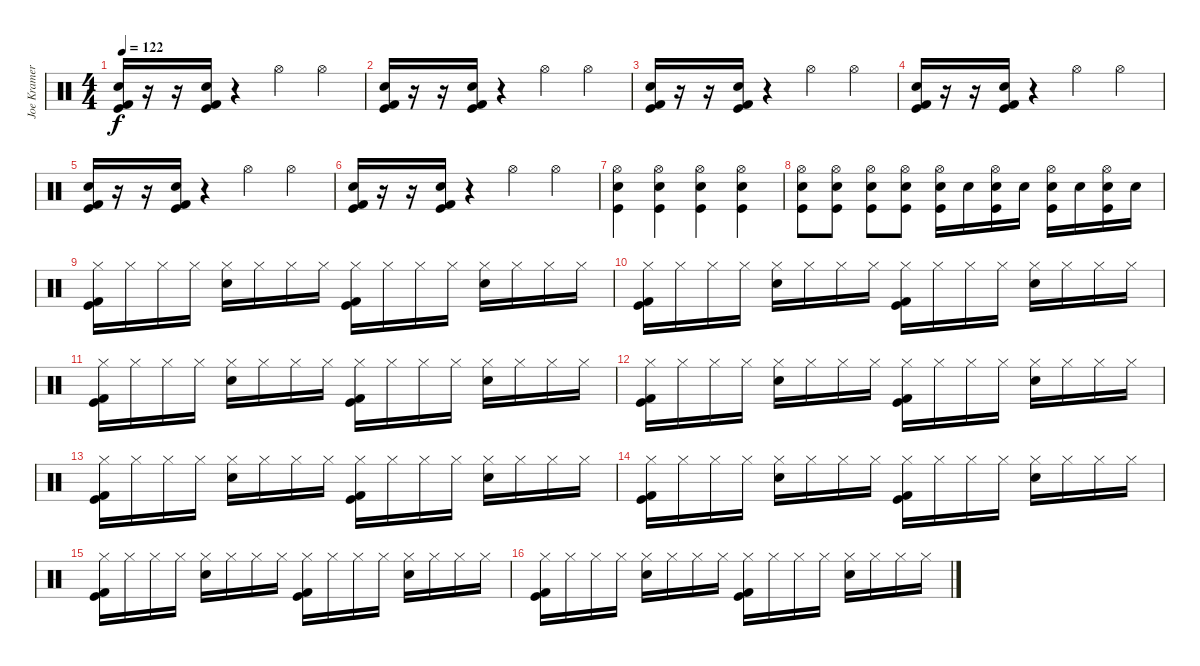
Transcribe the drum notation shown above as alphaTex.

\track ("Joe Kramer" "Joe Kramer") {instrument percussion}
\staff {score}
\articulation defaults
\ts (4 4)
\tempo 122
\clef neutral
\ks c
("Kick (hit)" "Snare (hit) 2" "Kick (hit) 2").16{dy f} r.16 r.16 ("Kick (hit)" "Snare (hit) 2" "Kick (hit) 2").16 r.4 "Hi-Hat (open)".4 "Hi-Hat (open)".4 |
("Kick (hit)" "Snare (hit) 2" "Kick (hit) 2").16 r.16 r.16 ("Kick (hit)" "Snare (hit) 2" "Kick (hit) 2").16 r.4 "Hi-Hat (open)".4 "Hi-Hat (open)".4 |
("Kick (hit)" "Snare (hit) 2" "Kick (hit) 2").16 r.16 r.16 ("Kick (hit)" "Snare (hit) 2" "Kick (hit) 2").16 r.4 "Hi-Hat (open)".4 "Hi-Hat (open)".4 |
("Kick (hit)" "Snare (hit) 2" "Kick (hit) 2").16 r.16 r.16 ("Kick (hit)" "Snare (hit) 2" "Kick (hit) 2").16 r.4 "Hi-Hat (open)".4 "Hi-Hat (open)".4 |
("Kick (hit)" "Snare (hit) 2" "Kick (hit) 2").16 r.16 r.16 ("Kick (hit)" "Snare (hit) 2" "Kick (hit) 2").16 r.4 "Hi-Hat (open)".4 "Hi-Hat (open)".4 |
("Kick (hit)" "Snare (hit) 2" "Kick (hit) 2").16 r.16 r.16 ("Kick (hit)" "Snare (hit) 2" "Kick (hit) 2").16 r.4 "Hi-Hat (open)".4 "Hi-Hat (open)".4 |
("Kick (hit)" "Snare (hit) 2" "Hi-Hat (open)").4 ("Kick (hit)" "Snare (hit) 2" "Hi-Hat (open)").4 ("Kick (hit)" "Snare (hit) 2" "Hi-Hat (open)").4 ("Kick (hit)" "Snare (hit) 2" "Hi-Hat (open)").4 |
("Kick (hit)" "Snare (hit) 2" "Hi-Hat (open)").8 ("Kick (hit)" "Snare (hit) 2" "Hi-Hat (open)").8 ("Kick (hit)" "Snare (hit) 2" "Hi-Hat (open)").8 ("Kick (hit)" "Snare (hit) 2" "Hi-Hat (open)").8 ("Kick (hit)" "Snare (hit) 2" "Hi-Hat (open)").16 "Snare (hit) 2".16 ("Kick (hit)" "Snare (hit) 2" "Hi-Hat (open)").16 "Snare (hit) 2".16 ("Kick (hit)" "Snare (hit) 2" "Hi-Hat (open)").16 "Snare (hit) 2".16 ("Kick (hit)" "Snare (hit) 2" "Hi-Hat (open)").16 "Snare (hit) 2".16 |
("Hi-Hat (closed)" "Kick (hit)" "Kick (hit) 2").16 "Hi-Hat (closed)".16 "Hi-Hat (closed)".16 "Hi-Hat (closed)".16 ("Hi-Hat (closed)" "Snare (hit) 2").16 "Hi-Hat (closed)".16 "Hi-Hat (closed)".16 "Hi-Hat (closed)".16 ("Hi-Hat (closed)" "Kick (hit)" "Kick (hit) 2").16 "Hi-Hat (closed)".16 "Hi-Hat (closed)".16 "Hi-Hat (closed)".16 ("Hi-Hat (closed)" "Snare (hit) 2").16 "Hi-Hat (closed)".16 "Hi-Hat (closed)".16 "Hi-Hat (closed)".16 |
("Hi-Hat (closed)" "Kick (hit)" "Kick (hit) 2").16 "Hi-Hat (closed)".16 "Hi-Hat (closed)".16 "Hi-Hat (closed)".16 ("Hi-Hat (closed)" "Snare (hit) 2").16 "Hi-Hat (closed)".16 "Hi-Hat (closed)".16 "Hi-Hat (closed)".16 ("Hi-Hat (closed)" "Kick (hit)" "Kick (hit) 2").16 "Hi-Hat (closed)".16 "Hi-Hat (closed)".16 "Hi-Hat (closed)".16 ("Hi-Hat (closed)" "Snare (hit) 2").16 "Hi-Hat (closed)".16 "Hi-Hat (closed)".16 "Hi-Hat (closed)".16 |
("Hi-Hat (closed)" "Kick (hit)" "Kick (hit) 2").16 "Hi-Hat (closed)".16 "Hi-Hat (closed)".16 "Hi-Hat (closed)".16 ("Hi-Hat (closed)" "Snare (hit) 2").16 "Hi-Hat (closed)".16 "Hi-Hat (closed)".16 "Hi-Hat (closed)".16 ("Hi-Hat (closed)" "Kick (hit)" "Kick (hit) 2").16 "Hi-Hat (closed)".16 "Hi-Hat (closed)".16 "Hi-Hat (closed)".16 ("Hi-Hat (closed)" "Snare (hit) 2").16 "Hi-Hat (closed)".16 "Hi-Hat (closed)".16 "Hi-Hat (closed)".16 |
("Hi-Hat (closed)" "Kick (hit)" "Kick (hit) 2").16 "Hi-Hat (closed)".16 "Hi-Hat (closed)".16 "Hi-Hat (closed)".16 ("Hi-Hat (closed)" "Snare (hit) 2").16 "Hi-Hat (closed)".16 "Hi-Hat (closed)".16 "Hi-Hat (closed)".16 ("Hi-Hat (closed)" "Kick (hit)" "Kick (hit) 2").16 "Hi-Hat (closed)".16 "Hi-Hat (closed)".16 "Hi-Hat (closed)".16 ("Hi-Hat (closed)" "Snare (hit) 2").16 "Hi-Hat (closed)".16 "Hi-Hat (closed)".16 "Hi-Hat (closed)".16 |
("Hi-Hat (closed)" "Kick (hit)" "Kick (hit) 2").16 "Hi-Hat (closed)".16 "Hi-Hat (closed)".16 "Hi-Hat (closed)".16 ("Hi-Hat (closed)" "Snare (hit) 2").16 "Hi-Hat (closed)".16 "Hi-Hat (closed)".16 "Hi-Hat (closed)".16 ("Hi-Hat (closed)" "Kick (hit)" "Kick (hit) 2").16 "Hi-Hat (closed)".16 "Hi-Hat (closed)".16 "Hi-Hat (closed)".16 ("Hi-Hat (closed)" "Snare (hit) 2").16 "Hi-Hat (closed)".16 "Hi-Hat (closed)".16 "Hi-Hat (closed)".16 |
("Hi-Hat (closed)" "Kick (hit)" "Kick (hit) 2").16 "Hi-Hat (closed)".16 "Hi-Hat (closed)".16 "Hi-Hat (closed)".16 ("Hi-Hat (closed)" "Snare (hit) 2").16 "Hi-Hat (closed)".16 "Hi-Hat (closed)".16 "Hi-Hat (closed)".16 ("Hi-Hat (closed)" "Kick (hit)" "Kick (hit) 2").16 "Hi-Hat (closed)".16 "Hi-Hat (closed)".16 "Hi-Hat (closed)".16 ("Hi-Hat (closed)" "Snare (hit) 2").16 "Hi-Hat (closed)".16 "Hi-Hat (closed)".16 "Hi-Hat (closed)".16 |
("Hi-Hat (closed)" "Kick (hit)" "Kick (hit) 2").16 "Hi-Hat (closed)".16 "Hi-Hat (closed)".16 "Hi-Hat (closed)".16 ("Hi-Hat (closed)" "Snare (hit) 2").16 "Hi-Hat (closed)".16 "Hi-Hat (closed)".16 "Hi-Hat (closed)".16 ("Hi-Hat (closed)" "Kick (hit)" "Kick (hit) 2").16 "Hi-Hat (closed)".16 "Hi-Hat (closed)".16 "Hi-Hat (closed)".16 ("Hi-Hat (closed)" "Snare (hit) 2").16 "Hi-Hat (closed)".16 "Hi-Hat (closed)".16 "Hi-Hat (closed)".16 |
("Hi-Hat (closed)" "Kick (hit)" "Kick (hit) 2").16 "Hi-Hat (closed)".16 "Hi-Hat (closed)".16 "Hi-Hat (closed)".16 ("Hi-Hat (closed)" "Snare (hit) 2").16 "Hi-Hat (closed)".16 "Hi-Hat (closed)".16 "Hi-Hat (closed)".16 ("Hi-Hat (closed)" "Kick (hit)" "Kick (hit) 2").16 "Hi-Hat (closed)".16 "Hi-Hat (closed)".16 "Hi-Hat (closed)".16 ("Hi-Hat (closed)" "Snare (hit) 2").16 "Hi-Hat (closed)".16 "Hi-Hat (closed)".16 "Hi-Hat (closed)".16
